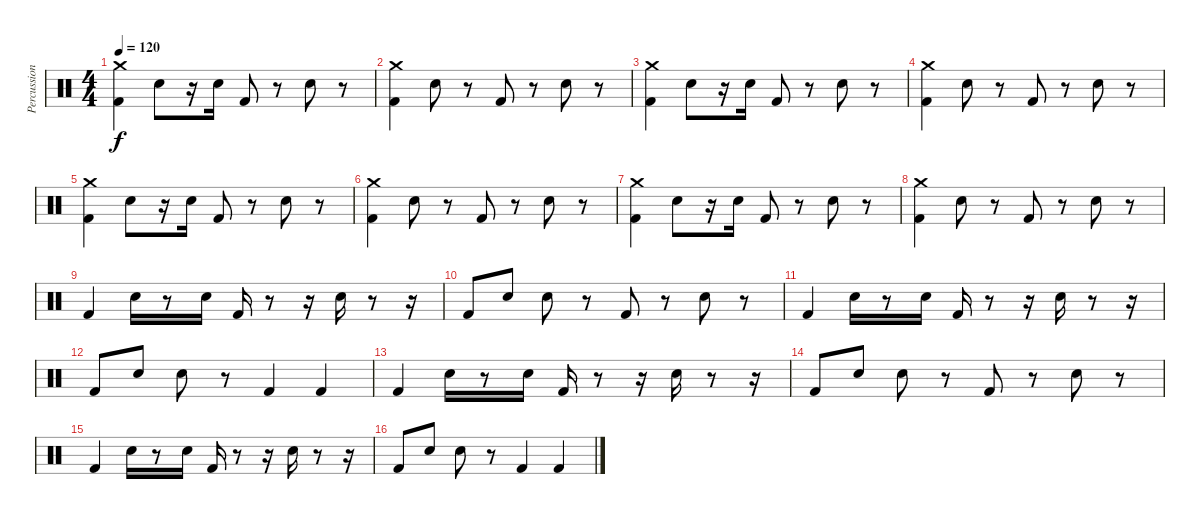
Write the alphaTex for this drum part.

\track ("Percussion" "Percussion") {instrument percussion}
\staff {score}
\articulation defaults
\ts (4 4)
\tempo 120
\clef neutral
\ks c
("Kick (hit) 2" "Crash medium (hit)").4{dy f} "Hand Clap (hit)".8 r.16 "Hand Clap (hit)".16 "Kick (hit) 2".8 r.8 "Hand Clap (hit)".8 r.8 |
("Kick (hit) 2" "Crash medium (hit)").4 "Hand Clap (hit)".8 r.8 "Kick (hit) 2".8 r.8 "Hand Clap (hit)".8 r.8 |
("Kick (hit) 2" "Crash medium (hit)").4 "Hand Clap (hit)".8 r.16 "Hand Clap (hit)".16 "Kick (hit) 2".8 r.8 "Hand Clap (hit)".8 r.8 |
("Kick (hit) 2" "Crash medium (hit)").4 "Hand Clap (hit)".8 r.8 "Kick (hit) 2".8 r.8 "Hand Clap (hit)".8 r.8 |
("Kick (hit) 2" "Crash medium (hit)").4 "Hand Clap (hit)".8 r.16 "Hand Clap (hit)".16 "Kick (hit) 2".8 r.8 "Hand Clap (hit)".8 r.8 |
("Kick (hit) 2" "Crash medium (hit)").4 "Hand Clap (hit)".8 r.8 "Kick (hit) 2".8 r.8 "Hand Clap (hit)".8 r.8 |
("Kick (hit) 2" "Crash medium (hit)").4 "Hand Clap (hit)".8 r.16 "Hand Clap (hit)".16 "Kick (hit) 2".8 r.8 "Hand Clap (hit)".8 r.8 |
("Kick (hit) 2" "Crash medium (hit)").4 "Hand Clap (hit)".8 r.8 "Kick (hit) 2".8 r.8 "Hand Clap (hit)".8 r.8 |
"Kick (hit) 2".4 "Hand Clap (hit)".16 r.8 "Hand Clap (hit)".16 "Kick (hit) 2".16 r.8 r.16 "Hand Clap (hit)".16 r.8 r.16 |
"Kick (hit) 2".8 "Hand Clap (hit)".8 "Hand Clap (hit)".8 r.8 "Kick (hit) 2".8 r.8 "Hand Clap (hit)".8 r.8 |
"Kick (hit) 2".4 "Hand Clap (hit)".16 r.8 "Hand Clap (hit)".16 "Kick (hit) 2".16 r.8 r.16 "Hand Clap (hit)".16 r.8 r.16 |
"Kick (hit) 2".8 "Hand Clap (hit)".8 "Hand Clap (hit)".8 r.8 "Kick (hit) 2".4 "Kick (hit) 2".4 |
"Kick (hit) 2".4 "Hand Clap (hit)".16 r.8 "Hand Clap (hit)".16 "Kick (hit) 2".16 r.8 r.16 "Hand Clap (hit)".16 r.8 r.16 |
"Kick (hit) 2".8 "Hand Clap (hit)".8 "Hand Clap (hit)".8 r.8 "Kick (hit) 2".8 r.8 "Hand Clap (hit)".8 r.8 |
"Kick (hit) 2".4 "Hand Clap (hit)".16 r.8 "Hand Clap (hit)".16 "Kick (hit) 2".16 r.8 r.16 "Hand Clap (hit)".16 r.8 r.16 |
"Kick (hit) 2".8 "Hand Clap (hit)".8 "Hand Clap (hit)".8 r.8 "Kick (hit) 2".4 "Kick (hit) 2".4
